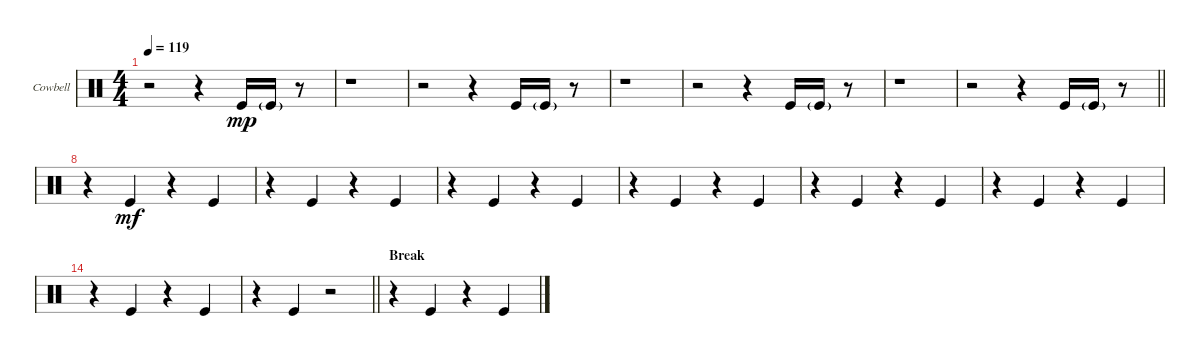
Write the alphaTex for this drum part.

\defaultSystemsLayout 4
\bracketExtendMode groupsimilarinstruments
\useSystemSignSeparator
\multiBarRest
\multiTrackTrackNamePolicy allsystems
\firstSystemTrackNameMode fullname
\firstSystemTrackNameOrientation horizontal
\otherSystemsTrackNameOrientation horizontal
\defaultBarNumberDisplay FirstOfSystem
\track ("Cowbell" "Cowbell") {multiBarRest instrument percussion}
\staff {score}
\articulation defaults
\ts (4 4)
\tempo 119
\clef neutral
\ks aminor
r.2{dy mp} r.4 "Kick (hit)".16 "Kick (hit)"{g}.16 r.8 |
r.1 |
r.2 r.4 "Kick (hit)".16 "Kick (hit)"{g}.16 r.8 |
r.1 |
r.2 r.4 "Kick (hit)".16 "Kick (hit)"{g}.16 r.8 |
r.1 |
\barLineRight lightlight
r.2 r.4 "Kick (hit)".16 "Kick (hit)"{g}.16 r.8 |
r.4 "Kick (hit)".4{dy mf} r.4 "Kick (hit)".4 |
r.4 "Kick (hit)".4 r.4 "Kick (hit)".4 |
r.4 "Kick (hit)".4 r.4 "Kick (hit)".4 |
r.4 "Kick (hit)".4 r.4 "Kick (hit)".4 |
r.4 "Kick (hit)".4 r.4 "Kick (hit)".4 |
r.4 "Kick (hit)".4 r.4 "Kick (hit)".4 |
r.4 "Kick (hit)".4 r.4 "Kick (hit)".4 |
\barLineRight lightlight
r.4 "Kick (hit)".4 r.2 |
\section ("" "Break")
r.4 "Kick (hit)".4 r.4 "Kick (hit)".4
